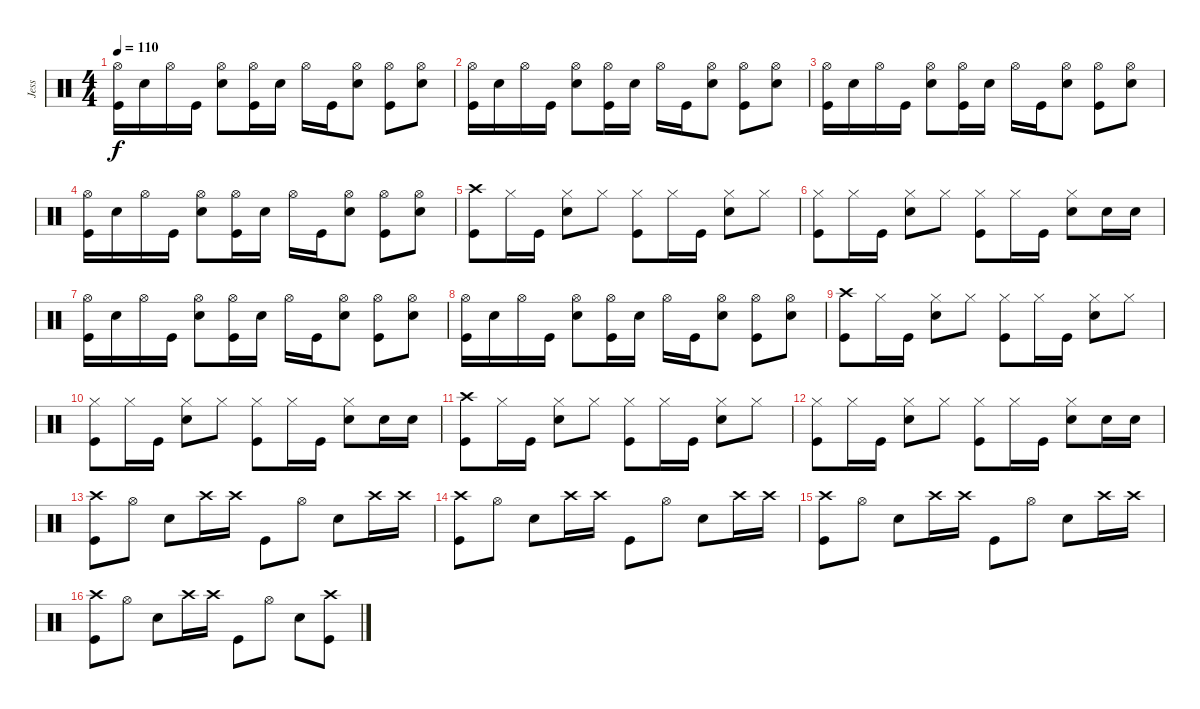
\track ("Jess" "Jess") {instrument percussion}
\staff {score}
\articulation defaults
\ts (4 4)
\tempo 110
\clef neutral
\ks c
("Hi-Hat (open)" "Kick (hit)").16{dy f} "Electric Snare (hit)".16 "Hi-Hat (open)".16 "Kick (hit)".16 ("Hi-Hat (open)" "Electric Snare (hit)").8 ("Hi-Hat (open)" "Kick (hit)").16 "Electric Snare (hit)".16 "Hi-Hat (open)".16 "Kick (hit)".16 ("Hi-Hat (open)" "Electric Snare (hit)").8 ("Hi-Hat (open)" "Kick (hit)").8 ("Hi-Hat (open)" "Electric Snare (hit)").8 |
("Hi-Hat (open)" "Kick (hit)").16 "Electric Snare (hit)".16 "Hi-Hat (open)".16 "Kick (hit)".16 ("Hi-Hat (open)" "Electric Snare (hit)").8 ("Hi-Hat (open)" "Kick (hit)").16 "Electric Snare (hit)".16 "Hi-Hat (open)".16 "Kick (hit)".16 ("Hi-Hat (open)" "Electric Snare (hit)").8 ("Hi-Hat (open)" "Kick (hit)").8 ("Hi-Hat (open)" "Electric Snare (hit)").8 |
("Hi-Hat (open)" "Kick (hit)").16 "Electric Snare (hit)".16 "Hi-Hat (open)".16 "Kick (hit)".16 ("Hi-Hat (open)" "Electric Snare (hit)").8 ("Hi-Hat (open)" "Kick (hit)").16 "Electric Snare (hit)".16 "Hi-Hat (open)".16 "Kick (hit)".16 ("Hi-Hat (open)" "Electric Snare (hit)").8 ("Hi-Hat (open)" "Kick (hit)").8 ("Hi-Hat (open)" "Electric Snare (hit)").8 |
("Hi-Hat (open)" "Kick (hit)").16 "Electric Snare (hit)".16 "Hi-Hat (open)".16 "Kick (hit)".16 ("Hi-Hat (open)" "Electric Snare (hit)").8 ("Hi-Hat (open)" "Kick (hit)").16 "Electric Snare (hit)".16 "Hi-Hat (open)".16 "Kick (hit)".16 ("Hi-Hat (open)" "Electric Snare (hit)").8 ("Hi-Hat (open)" "Kick (hit)").8 ("Hi-Hat (open)" "Electric Snare (hit)").8 |
("Crash high (hit)" "Kick (hit)").8 "Hi-Hat (closed)".16 "Kick (hit)".16 ("Hi-Hat (closed)" "Electric Snare (hit)").8 "Hi-Hat (closed)".8 ("Hi-Hat (closed)" "Kick (hit)").8 "Hi-Hat (closed)".16 "Kick (hit)".16 ("Hi-Hat (closed)" "Electric Snare (hit)").8 "Hi-Hat (closed)".8 |
("Hi-Hat (closed)" "Kick (hit)").8 "Hi-Hat (closed)".16 "Kick (hit)".16 ("Hi-Hat (closed)" "Electric Snare (hit)").8 "Hi-Hat (closed)".8 ("Hi-Hat (closed)" "Kick (hit)").8 "Hi-Hat (closed)".16 "Kick (hit)".16 ("Hi-Hat (closed)" "Electric Snare (hit)").8 "Electric Snare (hit)".16 "Electric Snare (hit)".16 |
("Hi-Hat (open)" "Kick (hit)").16 "Electric Snare (hit)".16 "Hi-Hat (open)".16 "Kick (hit)".16 ("Hi-Hat (open)" "Electric Snare (hit)").8 ("Hi-Hat (open)" "Kick (hit)").16 "Electric Snare (hit)".16 "Hi-Hat (open)".16 "Kick (hit)".16 ("Hi-Hat (open)" "Electric Snare (hit)").8 ("Hi-Hat (open)" "Kick (hit)").8 ("Hi-Hat (open)" "Electric Snare (hit)").8 |
("Hi-Hat (open)" "Kick (hit)").16 "Electric Snare (hit)".16 "Hi-Hat (open)".16 "Kick (hit)".16 ("Hi-Hat (open)" "Electric Snare (hit)").8 ("Hi-Hat (open)" "Kick (hit)").16 "Electric Snare (hit)".16 "Hi-Hat (open)".16 "Kick (hit)".16 ("Hi-Hat (open)" "Electric Snare (hit)").8 ("Hi-Hat (open)" "Kick (hit)").8 ("Hi-Hat (open)" "Electric Snare (hit)").8 |
("Crash high (hit)" "Kick (hit)").8 "Hi-Hat (closed)".16 "Kick (hit)".16 ("Hi-Hat (closed)" "Electric Snare (hit)").8 "Hi-Hat (closed)".8 ("Hi-Hat (closed)" "Kick (hit)").8 "Hi-Hat (closed)".16 "Kick (hit)".16 ("Hi-Hat (closed)" "Electric Snare (hit)").8 "Hi-Hat (closed)".8 |
("Hi-Hat (closed)" "Kick (hit)").8 "Hi-Hat (closed)".16 "Kick (hit)".16 ("Hi-Hat (closed)" "Electric Snare (hit)").8 "Hi-Hat (closed)".8 ("Hi-Hat (closed)" "Kick (hit)").8 "Hi-Hat (closed)".16 "Kick (hit)".16 ("Hi-Hat (closed)" "Electric Snare (hit)").8 "Electric Snare (hit)".16 "Electric Snare (hit)".16 |
("Crash high (hit)" "Kick (hit)").8 "Hi-Hat (closed)".16 "Kick (hit)".16 ("Hi-Hat (closed)" "Electric Snare (hit)").8 "Hi-Hat (closed)".8 ("Hi-Hat (closed)" "Kick (hit)").8 "Hi-Hat (closed)".16 "Kick (hit)".16 ("Hi-Hat (closed)" "Electric Snare (hit)").8 "Hi-Hat (closed)".8 |
("Hi-Hat (closed)" "Kick (hit)").8 "Hi-Hat (closed)".16 "Kick (hit)".16 ("Hi-Hat (closed)" "Electric Snare (hit)").8 "Hi-Hat (closed)".8 ("Hi-Hat (closed)" "Kick (hit)").8 "Hi-Hat (closed)".16 "Kick (hit)".16 ("Hi-Hat (closed)" "Electric Snare (hit)").8 "Electric Snare (hit)".16 "Electric Snare (hit)".16 |
("Crash high (hit)" "Kick (hit)").8 "Hi-Hat (open)".8 "Electric Snare (hit)".8 "Crash high (hit)".16 "Crash high (hit)".16 "Kick (hit)".8 "Hi-Hat (open)".8 "Electric Snare (hit)".8 "Crash high (hit)".16 "Crash high (hit)".16 |
("Crash high (hit)" "Kick (hit)").8 "Hi-Hat (open)".8 "Electric Snare (hit)".8 "Crash high (hit)".16 "Crash high (hit)".16 "Kick (hit)".8 "Hi-Hat (open)".8 "Electric Snare (hit)".8 "Crash high (hit)".16 "Crash high (hit)".16 |
("Crash high (hit)" "Kick (hit)").8 "Hi-Hat (open)".8 "Electric Snare (hit)".8 "Crash high (hit)".16 "Crash high (hit)".16 "Kick (hit)".8 "Hi-Hat (open)".8 "Electric Snare (hit)".8 "Crash high (hit)".16 "Crash high (hit)".16 |
("Crash high (hit)" "Kick (hit)").8 "Hi-Hat (open)".8 "Electric Snare (hit)".8 "Crash high (hit)".16 "Crash high (hit)".16 "Kick (hit)".8 "Hi-Hat (open)".8 "Electric Snare (hit)".8 ("Crash high (hit)" "Kick (hit)").8
